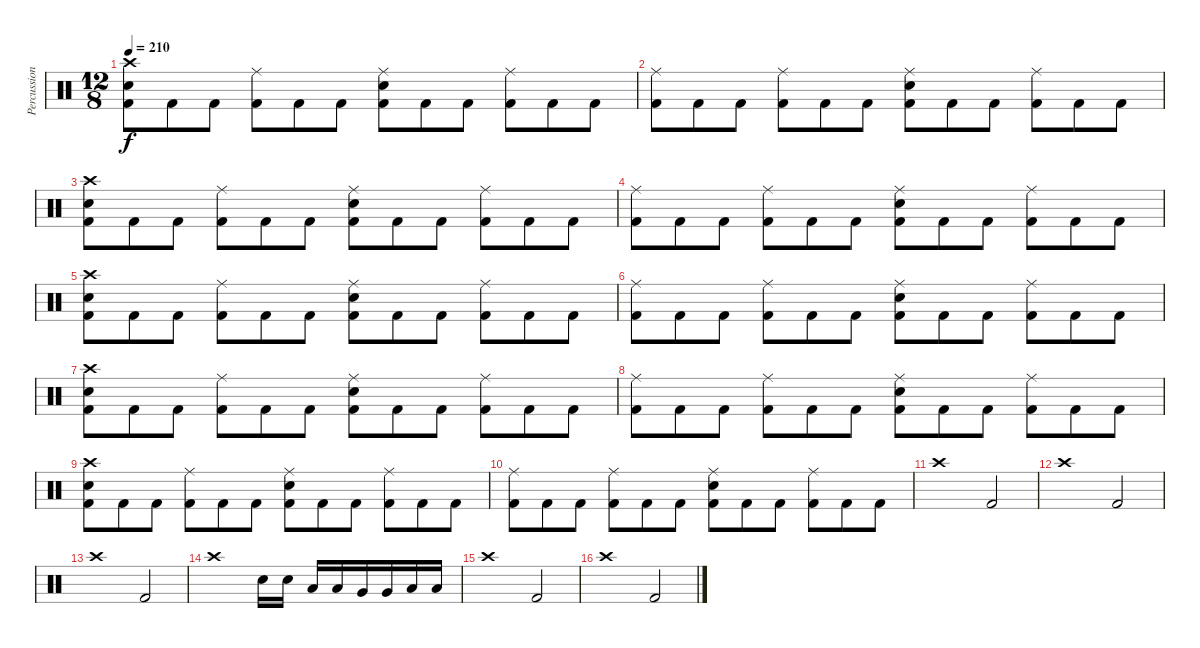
\track ("Percussion" "Percussion") {instrument percussion}
\staff {score}
\articulation defaults
\ts (12 8)
\tempo 210
\clef neutral
\ks c
("Crash high (hit)" "Snare (hit) 2" "Kick (hit) 2").8{dy f} "Kick (hit) 2".8 "Kick (hit) 2".8 ("Ride (middle)" "Kick (hit) 2").8 "Kick (hit) 2".8 "Kick (hit) 2".8 ("Ride (middle)" "Snare (hit) 2" "Kick (hit) 2").8 "Kick (hit) 2".8 "Kick (hit) 2".8 ("Ride (middle)" "Kick (hit) 2").8 "Kick (hit) 2".8 "Kick (hit) 2".8 |
("Ride (middle)" "Kick (hit) 2").8 "Kick (hit) 2".8 "Kick (hit) 2".8 ("Ride (middle)" "Kick (hit) 2").8 "Kick (hit) 2".8 "Kick (hit) 2".8 ("Ride (middle)" "Snare (hit) 2" "Kick (hit) 2").8 "Kick (hit) 2".8 "Kick (hit) 2".8 ("Ride (middle)" "Kick (hit) 2").8 "Kick (hit) 2".8 "Kick (hit) 2".8 |
("Crash high (hit)" "Snare (hit) 2" "Kick (hit) 2").8 "Kick (hit) 2".8 "Kick (hit) 2".8 ("Ride (middle)" "Kick (hit) 2").8 "Kick (hit) 2".8 "Kick (hit) 2".8 ("Ride (middle)" "Snare (hit) 2" "Kick (hit) 2").8 "Kick (hit) 2".8 "Kick (hit) 2".8 ("Ride (middle)" "Kick (hit) 2").8 "Kick (hit) 2".8 "Kick (hit) 2".8 |
("Ride (middle)" "Kick (hit) 2").8 "Kick (hit) 2".8 "Kick (hit) 2".8 ("Ride (middle)" "Kick (hit) 2").8 "Kick (hit) 2".8 "Kick (hit) 2".8 ("Ride (middle)" "Snare (hit) 2" "Kick (hit) 2").8 "Kick (hit) 2".8 "Kick (hit) 2".8 ("Ride (middle)" "Kick (hit) 2").8 "Kick (hit) 2".8 "Kick (hit) 2".8 |
("Crash high (hit)" "Snare (hit) 2" "Kick (hit) 2").8 "Kick (hit) 2".8 "Kick (hit) 2".8 ("Ride (middle)" "Kick (hit) 2").8 "Kick (hit) 2".8 "Kick (hit) 2".8 ("Ride (middle)" "Snare (hit) 2" "Kick (hit) 2").8 "Kick (hit) 2".8 "Kick (hit) 2".8 ("Ride (middle)" "Kick (hit) 2").8 "Kick (hit) 2".8 "Kick (hit) 2".8 |
("Ride (middle)" "Kick (hit) 2").8 "Kick (hit) 2".8 "Kick (hit) 2".8 ("Ride (middle)" "Kick (hit) 2").8 "Kick (hit) 2".8 "Kick (hit) 2".8 ("Ride (middle)" "Snare (hit) 2" "Kick (hit) 2").8 "Kick (hit) 2".8 "Kick (hit) 2".8 ("Ride (middle)" "Kick (hit) 2").8 "Kick (hit) 2".8 "Kick (hit) 2".8 |
("Crash high (hit)" "Snare (hit) 2" "Kick (hit) 2").8 "Kick (hit) 2".8 "Kick (hit) 2".8 ("Ride (middle)" "Kick (hit) 2").8 "Kick (hit) 2".8 "Kick (hit) 2".8 ("Ride (middle)" "Snare (hit) 2" "Kick (hit) 2").8 "Kick (hit) 2".8 "Kick (hit) 2".8 ("Ride (middle)" "Kick (hit) 2").8 "Kick (hit) 2".8 "Kick (hit) 2".8 |
("Ride (middle)" "Kick (hit) 2").8 "Kick (hit) 2".8 "Kick (hit) 2".8 ("Ride (middle)" "Kick (hit) 2").8 "Kick (hit) 2".8 "Kick (hit) 2".8 ("Ride (middle)" "Snare (hit) 2" "Kick (hit) 2").8 "Kick (hit) 2".8 "Kick (hit) 2".8 ("Ride (middle)" "Kick (hit) 2").8 "Kick (hit) 2".8 "Kick (hit) 2".8 |
("Crash high (hit)" "Snare (hit) 2" "Kick (hit) 2").8 "Kick (hit) 2".8 "Kick (hit) 2".8 ("Ride (middle)" "Kick (hit) 2").8 "Kick (hit) 2".8 "Kick (hit) 2".8 ("Ride (middle)" "Snare (hit) 2" "Kick (hit) 2").8 "Kick (hit) 2".8 "Kick (hit) 2".8 ("Ride (middle)" "Kick (hit) 2").8 "Kick (hit) 2".8 "Kick (hit) 2".8 |
("Ride (middle)" "Kick (hit) 2").8 "Kick (hit) 2".8 "Kick (hit) 2".8 ("Ride (middle)" "Kick (hit) 2").8 "Kick (hit) 2".8 "Kick (hit) 2".8 ("Ride (middle)" "Snare (hit) 2" "Kick (hit) 2").8 "Kick (hit) 2".8 "Kick (hit) 2".8 ("Ride (middle)" "Kick (hit) 2").8 "Kick (hit) 2".8 "Kick (hit) 2".8 |
"Crash high (hit)".1 "Kick (hit) 2".2 |
"Crash high (hit)".1 "Kick (hit) 2".2 |
"Crash high (hit)".1 "Kick (hit) 2".2 |
"Crash high (hit)".1 "Snare (hit) 2".16 "Snare (hit) 2".16 "Low Tom (hit)".16 "Low Tom (hit)".16 "Very Low Tom (hit)".16 "Very Low Tom (hit)".16 "Low Floor Tom (hit)".16 "Low Floor Tom (hit)".16 |
"Crash high (hit)".1 "Kick (hit) 2".2 |
"Crash high (hit)".1 "Kick (hit) 2".2
